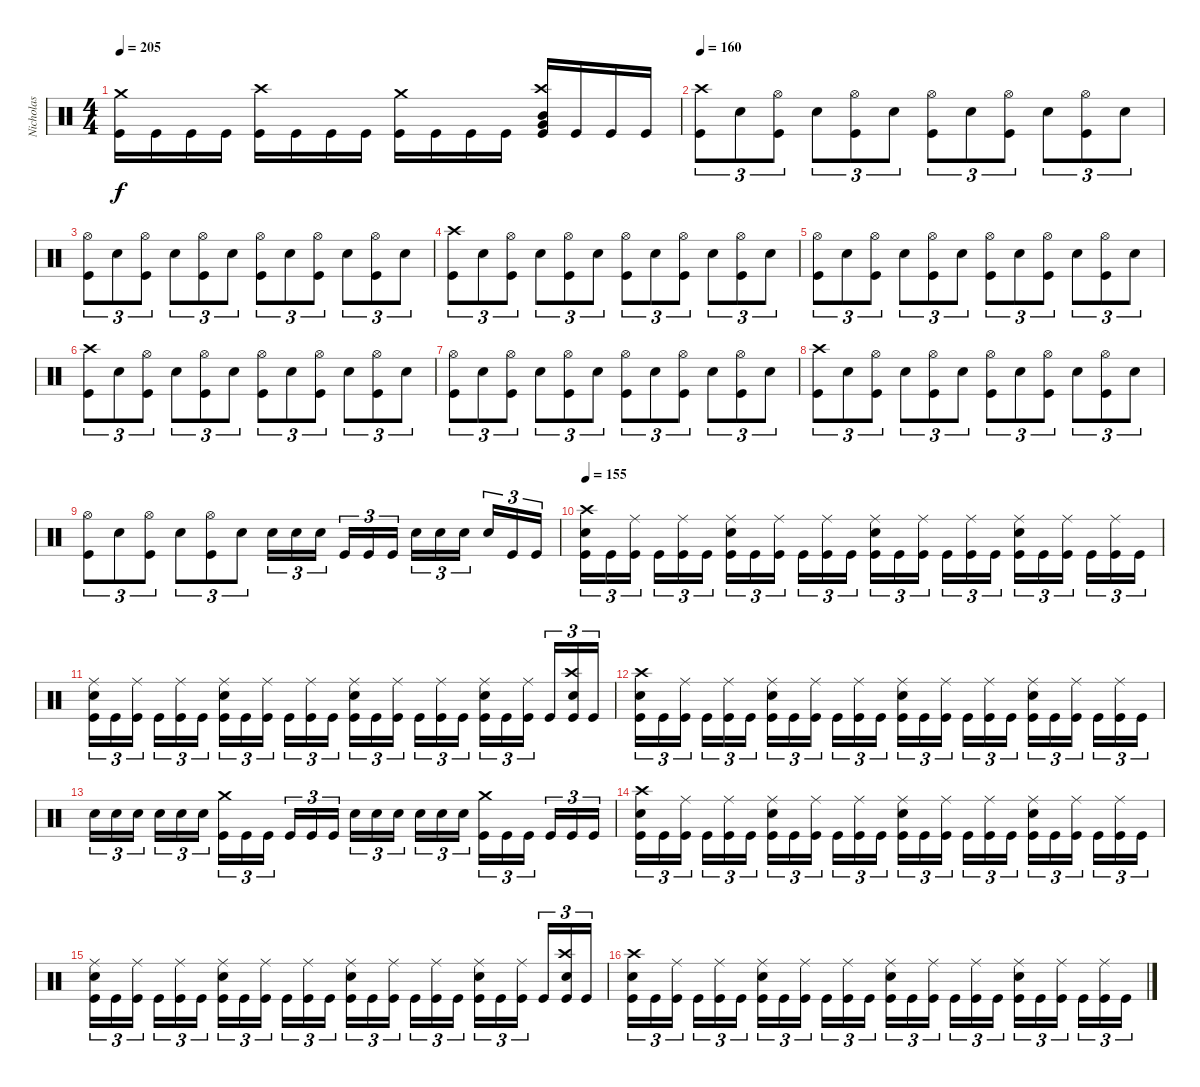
\track ("Nicholas" "Nicholas") {instrument percussion}
\staff {score}
\articulation defaults
\ts (4 4)
\tempo 205
\clef neutral
\ks c
("Crash medium (hit)" "Kick (hit)").16{dy f} "Kick (hit)".16 "Kick (hit)".16 "Kick (hit)".16 ("Crash high (hit)" "Kick (hit)").16 "Kick (hit)".16 "Kick (hit)".16 "Kick (hit)".16 ("Crash medium (hit)" "Kick (hit)").16 "Kick (hit)".16 "Kick (hit)".16 "Kick (hit)".16 ("Crash high (hit)" "Mid Tom (hit)" "Very Low Tom (hit)" "Kick (hit)").16 "Kick (hit)".16 "Kick (hit)".16 "Kick (hit)".16 |
\tempo 160
("Crash high (hit)" "Kick (hit)").8{tu (3 2)} "Electric Snare (hit)".8{tu (3 2)} ("Hi-Hat (open)" "Kick (hit)").8{tu (3 2)} "Electric Snare (hit)".8{tu (3 2)} ("Hi-Hat (open)" "Kick (hit)").8{tu (3 2)} "Electric Snare (hit)".8{tu (3 2)} ("Hi-Hat (open)" "Kick (hit)").8{tu (3 2)} "Electric Snare (hit)".8{tu (3 2)} ("Hi-Hat (open)" "Kick (hit)").8{tu (3 2)} "Electric Snare (hit)".8{tu (3 2)} ("Hi-Hat (open)" "Kick (hit)").8{tu (3 2)} "Electric Snare (hit)".8{tu (3 2)} |
("Hi-Hat (open)" "Kick (hit)").8{tu (3 2)} "Electric Snare (hit)".8{tu (3 2)} ("Hi-Hat (open)" "Kick (hit)").8{tu (3 2)} "Electric Snare (hit)".8{tu (3 2)} ("Hi-Hat (open)" "Kick (hit)").8{tu (3 2)} "Electric Snare (hit)".8{tu (3 2)} ("Hi-Hat (open)" "Kick (hit)").8{tu (3 2)} "Electric Snare (hit)".8{tu (3 2)} ("Hi-Hat (open)" "Kick (hit)").8{tu (3 2)} "Electric Snare (hit)".8{tu (3 2)} ("Hi-Hat (open)" "Kick (hit)").8{tu (3 2)} "Electric Snare (hit)".8{tu (3 2)} |
("Crash high (hit)" "Kick (hit)").8{tu (3 2)} "Electric Snare (hit)".8{tu (3 2)} ("Hi-Hat (open)" "Kick (hit)").8{tu (3 2)} "Electric Snare (hit)".8{tu (3 2)} ("Hi-Hat (open)" "Kick (hit)").8{tu (3 2)} "Electric Snare (hit)".8{tu (3 2)} ("Hi-Hat (open)" "Kick (hit)").8{tu (3 2)} "Electric Snare (hit)".8{tu (3 2)} ("Hi-Hat (open)" "Kick (hit)").8{tu (3 2)} "Electric Snare (hit)".8{tu (3 2)} ("Hi-Hat (open)" "Kick (hit)").8{tu (3 2)} "Electric Snare (hit)".8{tu (3 2)} |
("Hi-Hat (open)" "Kick (hit)").8{tu (3 2)} "Electric Snare (hit)".8{tu (3 2)} ("Hi-Hat (open)" "Kick (hit)").8{tu (3 2)} "Electric Snare (hit)".8{tu (3 2)} ("Hi-Hat (open)" "Kick (hit)").8{tu (3 2)} "Electric Snare (hit)".8{tu (3 2)} ("Hi-Hat (open)" "Kick (hit)").8{tu (3 2)} "Electric Snare (hit)".8{tu (3 2)} ("Hi-Hat (open)" "Kick (hit)").8{tu (3 2)} "Electric Snare (hit)".8{tu (3 2)} ("Hi-Hat (open)" "Kick (hit)").8{tu (3 2)} "Electric Snare (hit)".8{tu (3 2)} |
("Crash high (hit)" "Kick (hit)").8{tu (3 2)} "Electric Snare (hit)".8{tu (3 2)} ("Hi-Hat (open)" "Kick (hit)").8{tu (3 2)} "Electric Snare (hit)".8{tu (3 2)} ("Hi-Hat (open)" "Kick (hit)").8{tu (3 2)} "Electric Snare (hit)".8{tu (3 2)} ("Hi-Hat (open)" "Kick (hit)").8{tu (3 2)} "Electric Snare (hit)".8{tu (3 2)} ("Hi-Hat (open)" "Kick (hit)").8{tu (3 2)} "Electric Snare (hit)".8{tu (3 2)} ("Hi-Hat (open)" "Kick (hit)").8{tu (3 2)} "Electric Snare (hit)".8{tu (3 2)} |
("Hi-Hat (open)" "Kick (hit)").8{tu (3 2)} "Electric Snare (hit)".8{tu (3 2)} ("Hi-Hat (open)" "Kick (hit)").8{tu (3 2)} "Electric Snare (hit)".8{tu (3 2)} ("Hi-Hat (open)" "Kick (hit)").8{tu (3 2)} "Electric Snare (hit)".8{tu (3 2)} ("Hi-Hat (open)" "Kick (hit)").8{tu (3 2)} "Electric Snare (hit)".8{tu (3 2)} ("Hi-Hat (open)" "Kick (hit)").8{tu (3 2)} "Electric Snare (hit)".8{tu (3 2)} ("Hi-Hat (open)" "Kick (hit)").8{tu (3 2)} "Electric Snare (hit)".8{tu (3 2)} |
("Crash high (hit)" "Kick (hit)").8{tu (3 2)} "Electric Snare (hit)".8{tu (3 2)} ("Hi-Hat (open)" "Kick (hit)").8{tu (3 2)} "Electric Snare (hit)".8{tu (3 2)} ("Hi-Hat (open)" "Kick (hit)").8{tu (3 2)} "Electric Snare (hit)".8{tu (3 2)} ("Hi-Hat (open)" "Kick (hit)").8{tu (3 2)} "Electric Snare (hit)".8{tu (3 2)} ("Hi-Hat (open)" "Kick (hit)").8{tu (3 2)} "Electric Snare (hit)".8{tu (3 2)} ("Hi-Hat (open)" "Kick (hit)").8{tu (3 2)} "Electric Snare (hit)".8{tu (3 2)} |
("Hi-Hat (open)" "Kick (hit)").8{tu (3 2)} "Electric Snare (hit)".8{tu (3 2)} ("Hi-Hat (open)" "Kick (hit)").8{tu (3 2)} "Electric Snare (hit)".8{tu (3 2)} ("Hi-Hat (open)" "Kick (hit)").8{tu (3 2)} "Electric Snare (hit)".8{tu (3 2)} "Electric Snare (hit)".16{tu (3 2)} "Electric Snare (hit)".16{tu (3 2)} "Electric Snare (hit)".16{tu (3 2)} "Kick (hit)".16{tu (3 2)} "Kick (hit)".16{tu (3 2)} "Kick (hit)".16{tu (3 2)} "Electric Snare (hit)".16{tu (3 2)} "Electric Snare (hit)".16{tu (3 2)} "Electric Snare (hit)".16{tu (3 2)} "Electric Snare (hit)".16{tu (3 2)} "Kick (hit)".16{tu (3 2)} "Kick (hit)".16{tu (3 2)} |
\tempo 155
("Crash high (hit)" "Electric Snare (hit)" "Kick (hit)").16{tu (3 2)} "Kick (hit)".16{tu (3 2)} ("Ride (middle)" "Kick (hit)").16{tu (3 2)} "Kick (hit)".16{tu (3 2)} ("Ride (middle)" "Kick (hit)").16{tu (3 2)} "Kick (hit)".16{tu (3 2)} ("Ride (middle)" "Electric Snare (hit)" "Kick (hit)").16{tu (3 2)} "Kick (hit)".16{tu (3 2)} ("Ride (middle)" "Kick (hit)").16{tu (3 2)} "Kick (hit)".16{tu (3 2)} ("Ride (middle)" "Kick (hit)").16{tu (3 2)} "Kick (hit)".16{tu (3 2)} ("Ride (middle)" "Electric Snare (hit)" "Kick (hit)").16{tu (3 2)} "Kick (hit)".16{tu (3 2)} ("Ride (middle)" "Kick (hit)").16{tu (3 2)} "Kick (hit)".16{tu (3 2)} ("Ride (middle)" "Kick (hit)").16{tu (3 2)} "Kick (hit)".16{tu (3 2)} ("Ride (middle)" "Electric Snare (hit)" "Kick (hit)").16{tu (3 2)} "Kick (hit)".16{tu (3 2)} ("Ride (middle)" "Kick (hit)").16{tu (3 2)} "Kick (hit)".16{tu (3 2)} ("Ride (middle)" "Kick (hit)").16{tu (3 2)} "Kick (hit)".16{tu (3 2)} |
("Ride (middle)" "Electric Snare (hit)" "Kick (hit)").16{tu (3 2)} "Kick (hit)".16{tu (3 2)} ("Ride (middle)" "Kick (hit)").16{tu (3 2)} "Kick (hit)".16{tu (3 2)} ("Ride (middle)" "Kick (hit)").16{tu (3 2)} "Kick (hit)".16{tu (3 2)} ("Ride (middle)" "Electric Snare (hit)" "Kick (hit)").16{tu (3 2)} "Kick (hit)".16{tu (3 2)} ("Ride (middle)" "Kick (hit)").16{tu (3 2)} "Kick (hit)".16{tu (3 2)} ("Ride (middle)" "Kick (hit)").16{tu (3 2)} "Kick (hit)".16{tu (3 2)} ("Ride (middle)" "Electric Snare (hit)" "Kick (hit)").16{tu (3 2)} "Kick (hit)".16{tu (3 2)} ("Ride (middle)" "Kick (hit)").16{tu (3 2)} "Kick (hit)".16{tu (3 2)} ("Ride (middle)" "Kick (hit)").16{tu (3 2)} "Kick (hit)".16{tu (3 2)} ("Ride (middle)" "Electric Snare (hit)" "Kick (hit)").16{tu (3 2)} "Kick (hit)".16{tu (3 2)} ("Ride (middle)" "Kick (hit)").16{tu (3 2)} "Kick (hit)".16{tu (3 2)} ("Crash high (hit)" "Electric Snare (hit)" "Kick (hit)").16{tu (3 2)} "Kick (hit)".16{tu (3 2)} |
("Crash high (hit)" "Electric Snare (hit)" "Kick (hit)").16{tu (3 2)} "Kick (hit)".16{tu (3 2)} ("Ride (middle)" "Kick (hit)").16{tu (3 2)} "Kick (hit)".16{tu (3 2)} ("Ride (middle)" "Kick (hit)").16{tu (3 2)} "Kick (hit)".16{tu (3 2)} ("Ride (middle)" "Electric Snare (hit)" "Kick (hit)").16{tu (3 2)} "Kick (hit)".16{tu (3 2)} ("Ride (middle)" "Kick (hit)").16{tu (3 2)} "Kick (hit)".16{tu (3 2)} ("Ride (middle)" "Kick (hit)").16{tu (3 2)} "Kick (hit)".16{tu (3 2)} ("Ride (middle)" "Electric Snare (hit)" "Kick (hit)").16{tu (3 2)} "Kick (hit)".16{tu (3 2)} ("Ride (middle)" "Kick (hit)").16{tu (3 2)} "Kick (hit)".16{tu (3 2)} ("Ride (middle)" "Kick (hit)").16{tu (3 2)} "Kick (hit)".16{tu (3 2)} ("Ride (middle)" "Electric Snare (hit)" "Kick (hit)").16{tu (3 2)} "Kick (hit)".16{tu (3 2)} ("Ride (middle)" "Kick (hit)").16{tu (3 2)} "Kick (hit)".16{tu (3 2)} ("Ride (middle)" "Kick (hit)").16{tu (3 2)} "Kick (hit)".16{tu (3 2)} |
"Electric Snare (hit)".16{tu (3 2)} "Electric Snare (hit)".16{tu (3 2)} "Electric Snare (hit)".16{tu (3 2)} "Electric Snare (hit)".16{tu (3 2)} "Electric Snare (hit)".16{tu (3 2)} "Electric Snare (hit)".16{tu (3 2)} ("Crash medium (hit)" "Kick (hit)").16{tu (3 2)} "Kick (hit)".16{tu (3 2)} "Kick (hit)".16{tu (3 2)} "Kick (hit)".16{tu (3 2)} "Kick (hit)".16{tu (3 2)} "Kick (hit)".16{tu (3 2)} "Electric Snare (hit)".16{tu (3 2)} "Electric Snare (hit)".16{tu (3 2)} "Electric Snare (hit)".16{tu (3 2)} "Electric Snare (hit)".16{tu (3 2)} "Electric Snare (hit)".16{tu (3 2)} "Electric Snare (hit)".16{tu (3 2)} ("Crash medium (hit)" "Kick (hit)").16{tu (3 2)} "Kick (hit)".16{tu (3 2)} "Kick (hit)".16{tu (3 2)} "Kick (hit)".16{tu (3 2)} "Kick (hit)".16{tu (3 2)} "Kick (hit)".16{tu (3 2)} |
("Crash high (hit)" "Electric Snare (hit)" "Kick (hit)").16{tu (3 2)} "Kick (hit)".16{tu (3 2)} ("Ride (middle)" "Kick (hit)").16{tu (3 2)} "Kick (hit)".16{tu (3 2)} ("Ride (middle)" "Kick (hit)").16{tu (3 2)} "Kick (hit)".16{tu (3 2)} ("Ride (middle)" "Electric Snare (hit)" "Kick (hit)").16{tu (3 2)} "Kick (hit)".16{tu (3 2)} ("Ride (middle)" "Kick (hit)").16{tu (3 2)} "Kick (hit)".16{tu (3 2)} ("Ride (middle)" "Kick (hit)").16{tu (3 2)} "Kick (hit)".16{tu (3 2)} ("Ride (middle)" "Electric Snare (hit)" "Kick (hit)").16{tu (3 2)} "Kick (hit)".16{tu (3 2)} ("Ride (middle)" "Kick (hit)").16{tu (3 2)} "Kick (hit)".16{tu (3 2)} ("Ride (middle)" "Kick (hit)").16{tu (3 2)} "Kick (hit)".16{tu (3 2)} ("Ride (middle)" "Electric Snare (hit)" "Kick (hit)").16{tu (3 2)} "Kick (hit)".16{tu (3 2)} ("Ride (middle)" "Kick (hit)").16{tu (3 2)} "Kick (hit)".16{tu (3 2)} ("Ride (middle)" "Kick (hit)").16{tu (3 2)} "Kick (hit)".16{tu (3 2)} |
("Ride (middle)" "Electric Snare (hit)" "Kick (hit)").16{tu (3 2)} "Kick (hit)".16{tu (3 2)} ("Ride (middle)" "Kick (hit)").16{tu (3 2)} "Kick (hit)".16{tu (3 2)} ("Ride (middle)" "Kick (hit)").16{tu (3 2)} "Kick (hit)".16{tu (3 2)} ("Ride (middle)" "Electric Snare (hit)" "Kick (hit)").16{tu (3 2)} "Kick (hit)".16{tu (3 2)} ("Ride (middle)" "Kick (hit)").16{tu (3 2)} "Kick (hit)".16{tu (3 2)} ("Ride (middle)" "Kick (hit)").16{tu (3 2)} "Kick (hit)".16{tu (3 2)} ("Ride (middle)" "Electric Snare (hit)" "Kick (hit)").16{tu (3 2)} "Kick (hit)".16{tu (3 2)} ("Ride (middle)" "Kick (hit)").16{tu (3 2)} "Kick (hit)".16{tu (3 2)} ("Ride (middle)" "Kick (hit)").16{tu (3 2)} "Kick (hit)".16{tu (3 2)} ("Ride (middle)" "Electric Snare (hit)" "Kick (hit)").16{tu (3 2)} "Kick (hit)".16{tu (3 2)} ("Ride (middle)" "Kick (hit)").16{tu (3 2)} "Kick (hit)".16{tu (3 2)} ("Crash high (hit)" "Electric Snare (hit)" "Kick (hit)").16{tu (3 2)} "Kick (hit)".16{tu (3 2)} |
("Crash high (hit)" "Electric Snare (hit)" "Kick (hit)").16{tu (3 2)} "Kick (hit)".16{tu (3 2)} ("Ride (middle)" "Kick (hit)").16{tu (3 2)} "Kick (hit)".16{tu (3 2)} ("Ride (middle)" "Kick (hit)").16{tu (3 2)} "Kick (hit)".16{tu (3 2)} ("Ride (middle)" "Electric Snare (hit)" "Kick (hit)").16{tu (3 2)} "Kick (hit)".16{tu (3 2)} ("Ride (middle)" "Kick (hit)").16{tu (3 2)} "Kick (hit)".16{tu (3 2)} ("Ride (middle)" "Kick (hit)").16{tu (3 2)} "Kick (hit)".16{tu (3 2)} ("Ride (middle)" "Electric Snare (hit)" "Kick (hit)").16{tu (3 2)} "Kick (hit)".16{tu (3 2)} ("Ride (middle)" "Kick (hit)").16{tu (3 2)} "Kick (hit)".16{tu (3 2)} ("Ride (middle)" "Kick (hit)").16{tu (3 2)} "Kick (hit)".16{tu (3 2)} ("Ride (middle)" "Electric Snare (hit)" "Kick (hit)").16{tu (3 2)} "Kick (hit)".16{tu (3 2)} ("Ride (middle)" "Kick (hit)").16{tu (3 2)} "Kick (hit)".16{tu (3 2)} ("Ride (middle)" "Kick (hit)").16{tu (3 2)} "Kick (hit)".16{tu (3 2)}
